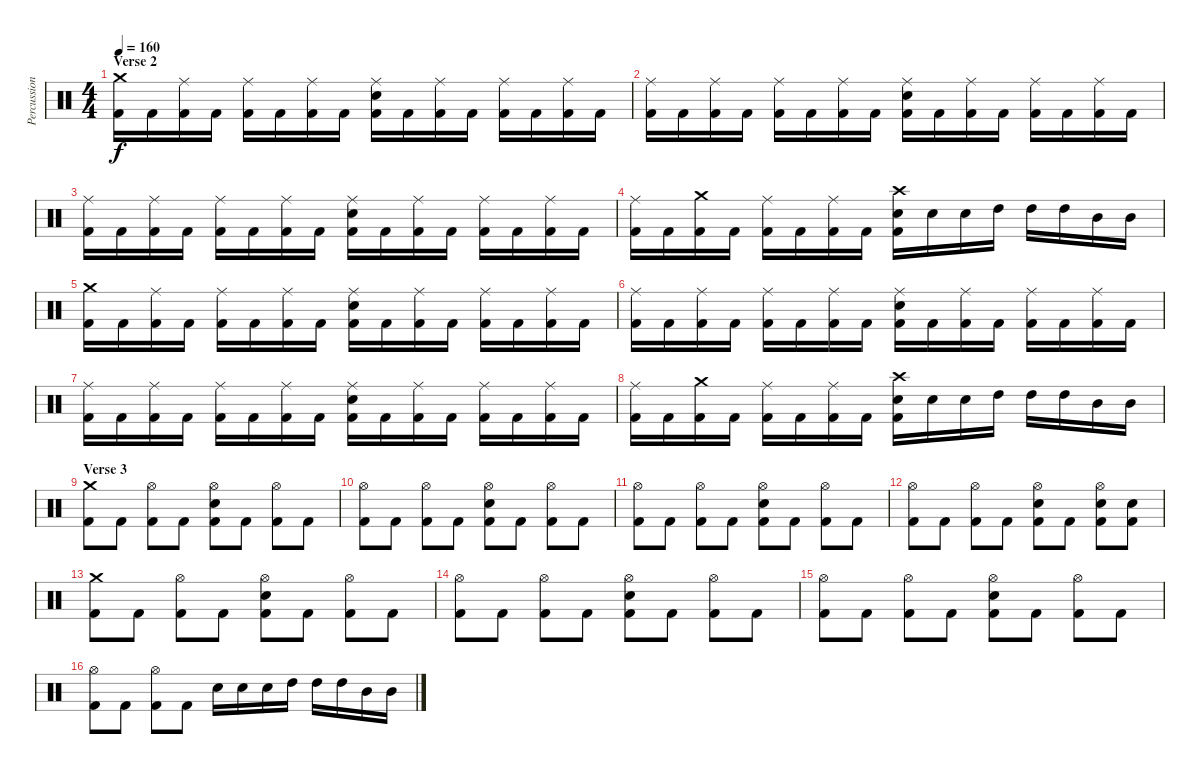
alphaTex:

\track ("Percussions" "Percussion") {instrument percussion}
\staff {score}
\articulation defaults
\ts (4 4)
\section ("" "Verse 2")
\tempo 160
\clef neutral
\ks c
("Crash medium (hit)" "Kick (hit) 2").16{dy f} "Kick (hit) 2".16 ("Ride (middle)" "Kick (hit) 2").16 "Kick (hit) 2".16 ("Ride (middle)" "Kick (hit) 2").16 "Kick (hit) 2".16 ("Ride (middle)" "Kick (hit) 2").16 "Kick (hit) 2".16 ("Ride (middle)" "Electric Snare (hit)" "Kick (hit) 2").16 "Kick (hit) 2".16 ("Ride (middle)" "Kick (hit) 2").16 "Kick (hit) 2".16 ("Ride (middle)" "Kick (hit) 2").16 "Kick (hit) 2".16 ("Ride (middle)" "Kick (hit) 2").16 "Kick (hit) 2".16 |
("Ride (middle)" "Kick (hit) 2").16 "Kick (hit) 2".16 ("Ride (middle)" "Kick (hit) 2").16 "Kick (hit) 2".16 ("Ride (middle)" "Kick (hit) 2").16 "Kick (hit) 2".16 ("Ride (middle)" "Kick (hit) 2").16 "Kick (hit) 2".16 ("Ride (middle)" "Electric Snare (hit)" "Kick (hit) 2").16 "Kick (hit) 2".16 ("Ride (middle)" "Kick (hit) 2").16 "Kick (hit) 2".16 ("Ride (middle)" "Kick (hit) 2").16 "Kick (hit) 2".16 ("Ride (middle)" "Kick (hit) 2").16 "Kick (hit) 2".16 |
("Ride (middle)" "Kick (hit) 2").16 "Kick (hit) 2".16 ("Ride (middle)" "Kick (hit) 2").16 "Kick (hit) 2".16 ("Ride (middle)" "Kick (hit) 2").16 "Kick (hit) 2".16 ("Ride (middle)" "Kick (hit) 2").16 "Kick (hit) 2".16 ("Ride (middle)" "Electric Snare (hit)" "Kick (hit) 2").16 "Kick (hit) 2".16 ("Ride (middle)" "Kick (hit) 2").16 "Kick (hit) 2".16 ("Ride (middle)" "Kick (hit) 2").16 "Kick (hit) 2".16 ("Ride (middle)" "Kick (hit) 2").16 "Kick (hit) 2".16 |
("Ride (middle)" "Kick (hit) 2").16 "Kick (hit) 2".16 ("Crash medium (hit)" "Kick (hit) 2").16 "Kick (hit) 2".16 ("Ride (middle)" "Kick (hit) 2").16 "Kick (hit) 2".16 ("Ride (middle)" "Kick (hit) 2").16 "Kick (hit) 2".16 ("Crash high (hit)" "Electric Snare (hit)" "Kick (hit) 2").16 "Electric Snare (hit)".16 "Electric Snare (hit)".16 "High Tom (hit)".16 "High Tom (hit)".16 "High Tom (hit)".16 "Mid Tom (hit)".16 "Mid Tom (hit)".16 |
("Crash medium (hit)" "Kick (hit) 2").16 "Kick (hit) 2".16 ("Ride (middle)" "Kick (hit) 2").16 "Kick (hit) 2".16 ("Ride (middle)" "Kick (hit) 2").16 "Kick (hit) 2".16 ("Ride (middle)" "Kick (hit) 2").16 "Kick (hit) 2".16 ("Ride (middle)" "Electric Snare (hit)" "Kick (hit) 2").16 "Kick (hit) 2".16 ("Ride (middle)" "Kick (hit) 2").16 "Kick (hit) 2".16 ("Ride (middle)" "Kick (hit) 2").16 "Kick (hit) 2".16 ("Ride (middle)" "Kick (hit) 2").16 "Kick (hit) 2".16 |
("Ride (middle)" "Kick (hit) 2").16 "Kick (hit) 2".16 ("Ride (middle)" "Kick (hit) 2").16 "Kick (hit) 2".16 ("Ride (middle)" "Kick (hit) 2").16 "Kick (hit) 2".16 ("Ride (middle)" "Kick (hit) 2").16 "Kick (hit) 2".16 ("Ride (middle)" "Electric Snare (hit)" "Kick (hit) 2").16 "Kick (hit) 2".16 ("Ride (middle)" "Kick (hit) 2").16 "Kick (hit) 2".16 ("Ride (middle)" "Kick (hit) 2").16 "Kick (hit) 2".16 ("Ride (middle)" "Kick (hit) 2").16 "Kick (hit) 2".16 |
("Ride (middle)" "Kick (hit) 2").16 "Kick (hit) 2".16 ("Ride (middle)" "Kick (hit) 2").16 "Kick (hit) 2".16 ("Ride (middle)" "Kick (hit) 2").16 "Kick (hit) 2".16 ("Ride (middle)" "Kick (hit) 2").16 "Kick (hit) 2".16 ("Ride (middle)" "Electric Snare (hit)" "Kick (hit) 2").16 "Kick (hit) 2".16 ("Ride (middle)" "Kick (hit) 2").16 "Kick (hit) 2".16 ("Ride (middle)" "Kick (hit) 2").16 "Kick (hit) 2".16 ("Ride (middle)" "Kick (hit) 2").16 "Kick (hit) 2".16 |
("Ride (middle)" "Kick (hit) 2").16 "Kick (hit) 2".16 ("Crash medium (hit)" "Kick (hit) 2").16 "Kick (hit) 2".16 ("Ride (middle)" "Kick (hit) 2").16 "Kick (hit) 2".16 ("Ride (middle)" "Kick (hit) 2").16 "Kick (hit) 2".16 ("Crash high (hit)" "Electric Snare (hit)" "Kick (hit) 2").16 "Electric Snare (hit)".16 "Electric Snare (hit)".16 "High Tom (hit)".16 "High Tom (hit)".16 "High Tom (hit)".16 "Mid Tom (hit)".16 "Mid Tom (hit)".16 |
\section ("" "Verse 3")
("Crash medium (hit)" "Kick (hit) 2").8 "Kick (hit) 2".8 ("Hi-Hat (open)" "Kick (hit) 2").8 "Kick (hit) 2".8 ("Hi-Hat (open)" "Electric Snare (hit)" "Kick (hit) 2").8 "Kick (hit) 2".8 ("Hi-Hat (open)" "Kick (hit) 2").8 "Kick (hit) 2".8 |
("Hi-Hat (open)" "Kick (hit) 2").8 "Kick (hit) 2".8 ("Hi-Hat (open)" "Kick (hit) 2").8 "Kick (hit) 2".8 ("Hi-Hat (open)" "Electric Snare (hit)" "Kick (hit) 2").8 "Kick (hit) 2".8 ("Hi-Hat (open)" "Kick (hit) 2").8 "Kick (hit) 2".8 |
("Hi-Hat (open)" "Kick (hit) 2").8 "Kick (hit) 2".8 ("Hi-Hat (open)" "Kick (hit) 2").8 "Kick (hit) 2".8 ("Hi-Hat (open)" "Electric Snare (hit)" "Kick (hit) 2").8 "Kick (hit) 2".8 ("Hi-Hat (open)" "Kick (hit) 2").8 "Kick (hit) 2".8 |
("Hi-Hat (open)" "Kick (hit) 2").8 "Kick (hit) 2".8 ("Hi-Hat (open)" "Kick (hit) 2").8 "Kick (hit) 2".8 ("Hi-Hat (open)" "Electric Snare (hit)" "Kick (hit) 2").8 "Kick (hit) 2".8 ("Hi-Hat (open)" "Electric Snare (hit)" "Kick (hit) 2").8 ("Electric Snare (hit)" "Kick (hit) 2").8 |
("Crash medium (hit)" "Kick (hit) 2").8 "Kick (hit) 2".8 ("Hi-Hat (open)" "Kick (hit) 2").8 "Kick (hit) 2".8 ("Hi-Hat (open)" "Electric Snare (hit)" "Kick (hit) 2").8 "Kick (hit) 2".8 ("Hi-Hat (open)" "Kick (hit) 2").8 "Kick (hit) 2".8 |
("Hi-Hat (open)" "Kick (hit) 2").8 "Kick (hit) 2".8 ("Hi-Hat (open)" "Kick (hit) 2").8 "Kick (hit) 2".8 ("Hi-Hat (open)" "Electric Snare (hit)" "Kick (hit) 2").8 "Kick (hit) 2".8 ("Hi-Hat (open)" "Kick (hit) 2").8 "Kick (hit) 2".8 |
("Hi-Hat (open)" "Kick (hit) 2").8 "Kick (hit) 2".8 ("Hi-Hat (open)" "Kick (hit) 2").8 "Kick (hit) 2".8 ("Hi-Hat (open)" "Electric Snare (hit)" "Kick (hit) 2").8 "Kick (hit) 2".8 ("Hi-Hat (open)" "Kick (hit) 2").8 "Kick (hit) 2".8 |
("Hi-Hat (open)" "Kick (hit) 2").8 "Kick (hit) 2".8 ("Hi-Hat (open)" "Kick (hit) 2").8 "Kick (hit) 2".8 "Electric Snare (hit)".16 "Electric Snare (hit)".16 "Electric Snare (hit)".16 "High Tom (hit)".16 "High Tom (hit)".16 "High Tom (hit)".16 "Mid Tom (hit)".16 "Mid Tom (hit)".16
